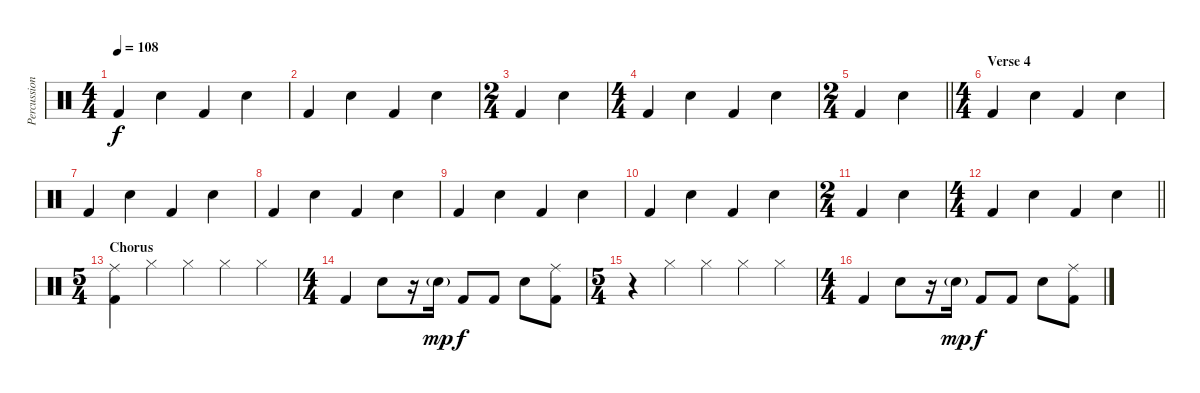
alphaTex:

\track ("Percussion" "Percussion") {instrument percussion}
\staff {score}
\articulation defaults
\ts (4 4)
\tempo 108
\clef neutral
\ks c "Kick (hit) 2".4{dy f} "Snare (hit) 2".4 "Kick (hit) 2".4 "Snare (hit) 2".4
|
"Kick (hit) 2".4 "Snare (hit) 2".4 "Kick (hit) 2".4 "Snare (hit) 2".4 |
\ts (2 4)
"Kick (hit) 2".4 "Snare (hit) 2".4 |
\ts (4 4)
"Kick (hit) 2".4 "Snare (hit) 2".4 "Kick (hit) 2".4 "Snare (hit) 2".4 |
\ts (2 4)
\barLineRight lightlight "Kick (hit) 2".4 "Snare (hit) 2".4
|
\ts (4 4)
\section ("" "Verse 4")
"Kick (hit) 2".4 "Snare (hit) 2".4 "Kick (hit) 2".4 "Snare (hit) 2".4 |
"Kick (hit) 2".4 "Snare (hit) 2".4 "Kick (hit) 2".4 "Snare (hit) 2".4 |
"Kick (hit) 2".4 "Snare (hit) 2".4 "Kick (hit) 2".4 "Snare (hit) 2".4 |
"Kick (hit) 2".4 "Snare (hit) 2".4 "Kick (hit) 2".4 "Snare (hit) 2".4 |
"Kick (hit) 2".4 "Snare (hit) 2".4 "Kick (hit) 2".4 "Snare (hit) 2".4 |
\ts (2 4)
"Kick (hit) 2".4 "Snare (hit) 2".4 |
\ts (4 4)
\barLineRight lightlight "Kick (hit) 2".4 "Snare (hit) 2".4 "Kick (hit) 2".4 "Snare (hit) 2".4
|
\ts (5 4)
\section ("" "Chorus")
("Ride (middle)" "Kick (hit) 2").4 "Hi-Hat (closed)".4 "Hi-Hat (closed)".4 "Hi-Hat (closed)".4 "Hi-Hat (closed)".4 |
\ts (4 4)
"Kick (hit) 2".4 "Snare (hit) 2".8 r.16 "Snare (hit) 2"{g}.16{dy mp} "Kick (hit) 2".8{dy f} "Kick (hit) 2".8 "Snare (hit) 2".8 ("Ride (middle)" "Kick (hit) 2").8 |
\ts (5 4)
r.4 "Hi-Hat (closed)".4 "Hi-Hat (closed)".4 "Hi-Hat (closed)".4 "Hi-Hat (closed)".4 |
\ts (4 4)
"Kick (hit) 2".4 "Snare (hit) 2".8 r.16 "Snare (hit) 2"{g}.16{dy mp} "Kick (hit) 2".8{dy f} "Kick (hit) 2".8 "Snare (hit) 2".8 ("Ride (middle)" "Kick (hit) 2").8
